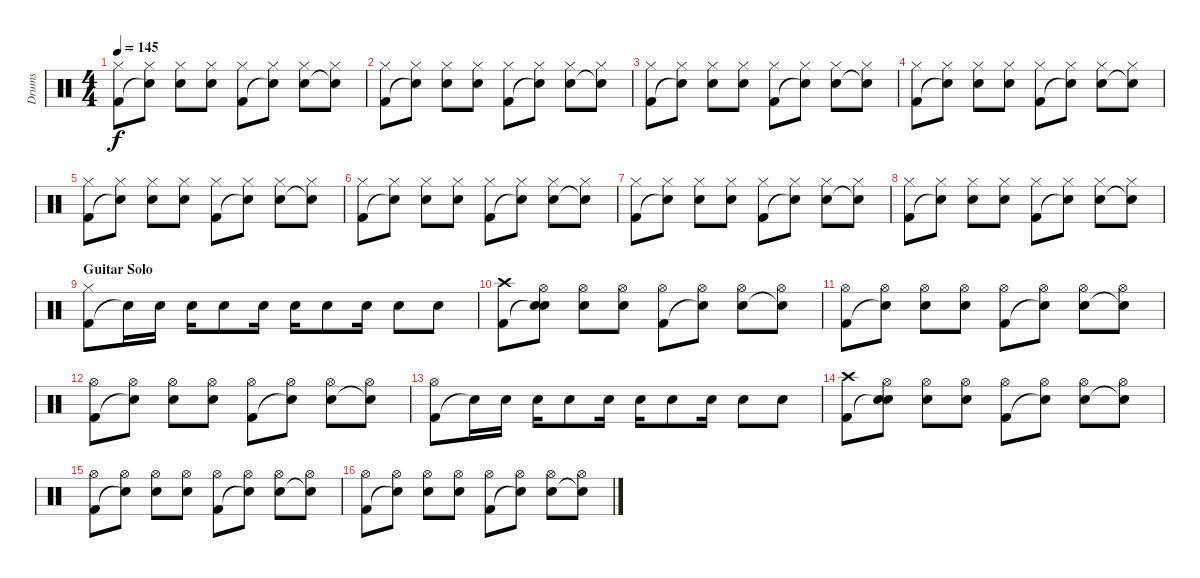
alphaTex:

\track ("Drums" "Drums") {instrument percussion}
\staff {score}
\articulation defaults
\ts (4 4)
\tempo 145
\clef neutral
\ks c
("Kick (hit) 2" "Hi-Hat (closed)").8{dy f} ("Snare (hit)"{t} "Hi-Hat (closed)").8 ("Snare (hit) 2" "Hi-Hat (closed)").8 ("Snare (hit) 2" "Hi-Hat (closed)").8 ("Kick (hit) 2" "Hi-Hat (closed)").8 ("Snare (hit)"{t} "Hi-Hat (closed)").8 ("Snare (hit) 2" "Hi-Hat (closed)").8 ("Snare (hit)"{t} "Hi-Hat (closed)").8 |
("Kick (hit) 2" "Hi-Hat (closed)").8 ("Snare (hit)"{t} "Hi-Hat (closed)").8 ("Snare (hit) 2" "Hi-Hat (closed)").8 ("Snare (hit) 2" "Hi-Hat (closed)").8 ("Kick (hit) 2" "Hi-Hat (closed)").8 ("Snare (hit)"{t} "Hi-Hat (closed)").8 ("Snare (hit) 2" "Hi-Hat (closed)").8 ("Snare (hit)"{t} "Hi-Hat (closed)").8 |
("Kick (hit) 2" "Hi-Hat (closed)").8 ("Snare (hit)"{t} "Hi-Hat (closed)").8 ("Snare (hit) 2" "Hi-Hat (closed)").8 ("Snare (hit) 2" "Hi-Hat (closed)").8 ("Kick (hit) 2" "Hi-Hat (closed)").8 ("Snare (hit)"{t} "Hi-Hat (closed)").8 ("Snare (hit) 2" "Hi-Hat (closed)").8 ("Snare (hit)"{t} "Hi-Hat (closed)").8 |
("Kick (hit) 2" "Hi-Hat (closed)").8 ("Snare (hit)"{t} "Hi-Hat (closed)").8 ("Snare (hit) 2" "Hi-Hat (closed)").8 ("Snare (hit) 2" "Hi-Hat (closed)").8 ("Kick (hit) 2" "Hi-Hat (closed)").8 ("Snare (hit)"{t} "Hi-Hat (closed)").8 ("Snare (hit) 2" "Hi-Hat (closed)").8 ("Snare (hit)"{t} "Hi-Hat (closed)").8 |
("Kick (hit) 2" "Hi-Hat (closed)").8 ("Snare (hit)"{t} "Hi-Hat (closed)").8 ("Snare (hit) 2" "Hi-Hat (closed)").8 ("Snare (hit) 2" "Hi-Hat (closed)").8 ("Kick (hit) 2" "Hi-Hat (closed)").8 ("Snare (hit)"{t} "Hi-Hat (closed)").8 ("Snare (hit) 2" "Hi-Hat (closed)").8 ("Snare (hit)"{t} "Hi-Hat (closed)").8 |
("Kick (hit) 2" "Hi-Hat (closed)").8 ("Snare (hit)"{t} "Hi-Hat (closed)").8 ("Snare (hit) 2" "Hi-Hat (closed)").8 ("Snare (hit) 2" "Hi-Hat (closed)").8 ("Kick (hit) 2" "Hi-Hat (closed)").8 ("Snare (hit)"{t} "Hi-Hat (closed)").8 ("Snare (hit) 2" "Hi-Hat (closed)").8 ("Snare (hit)"{t} "Hi-Hat (closed)").8 |
("Kick (hit) 2" "Hi-Hat (closed)").8 ("Snare (hit)"{t} "Hi-Hat (closed)").8 ("Snare (hit) 2" "Hi-Hat (closed)").8 ("Snare (hit) 2" "Hi-Hat (closed)").8 ("Kick (hit) 2" "Hi-Hat (closed)").8 ("Snare (hit)"{t} "Hi-Hat (closed)").8 ("Snare (hit) 2" "Hi-Hat (closed)").8 ("Snare (hit)"{t} "Hi-Hat (closed)").8 |
("Kick (hit) 2" "Hi-Hat (closed)").8 ("Snare (hit)"{t} "Hi-Hat (closed)").8 ("Snare (hit) 2" "Hi-Hat (closed)").8 ("Snare (hit) 2" "Hi-Hat (closed)").8 ("Kick (hit) 2" "Hi-Hat (closed)").8 ("Snare (hit)"{t} "Hi-Hat (closed)").8 ("Snare (hit) 2" "Hi-Hat (closed)").8 ("Snare (hit)"{t} "Hi-Hat (closed)").8 |
\section ("" "Guitar Solo")
("Kick (hit) 2" "Hi-Hat (closed)").8 "Snare (hit)"{t}.16 "Snare (hit) 2".16 "Snare (hit) 2".16 "Snare (hit) 2".8 "Snare (hit) 2".16 "Snare (hit) 2".16 "Snare (hit) 2".8 "Snare (hit) 2".16 "Snare (hit) 2".8 "Snare (hit) 2".8 |
("Kick (hit) 2" "Crash high (hit)").8 ("Snare (hit)"{t} "Hi-Hat (open)" "Snare (hit)").8 ("Snare (hit) 2" "Hi-Hat (open)").8 ("Snare (hit) 2" "Hi-Hat (open)").8 ("Kick (hit) 2" "Hi-Hat (open)").8 ("Snare (hit)"{t} "Hi-Hat (open)").8 ("Snare (hit) 2" "Hi-Hat (open)").8 ("Snare (hit)"{t} "Hi-Hat (open)").8 |
("Kick (hit) 2" "Hi-Hat (open)").8 ("Snare (hit)"{t} "Hi-Hat (open)").8 ("Snare (hit) 2" "Hi-Hat (open)").8 ("Snare (hit) 2" "Hi-Hat (open)").8 ("Kick (hit) 2" "Hi-Hat (open)").8 ("Snare (hit)"{t} "Hi-Hat (open)").8 ("Snare (hit) 2" "Hi-Hat (open)").8 ("Snare (hit)"{t} "Hi-Hat (open)").8 |
("Kick (hit) 2" "Hi-Hat (open)").8 ("Snare (hit)"{t} "Hi-Hat (open)").8 ("Snare (hit) 2" "Hi-Hat (open)").8 ("Snare (hit) 2" "Hi-Hat (open)").8 ("Kick (hit) 2" "Hi-Hat (open)").8 ("Snare (hit)"{t} "Hi-Hat (open)").8 ("Snare (hit) 2" "Hi-Hat (open)").8 ("Snare (hit)"{t} "Hi-Hat (open)").8 |
("Kick (hit) 2" "Hi-Hat (open)").8 "Snare (hit)"{t}.16 "Snare (hit) 2".16 "Snare (hit) 2".16 "Snare (hit) 2".8 "Snare (hit) 2".16 "Snare (hit) 2".16 "Snare (hit) 2".8 "Snare (hit) 2".16 "Snare (hit) 2".8 "Snare (hit) 2".8 |
("Kick (hit) 2" "Crash high (hit)").8 ("Snare (hit)"{t} "Hi-Hat (open)" "Snare (hit)").8 ("Snare (hit) 2" "Hi-Hat (open)").8 ("Snare (hit) 2" "Hi-Hat (open)").8 ("Kick (hit) 2" "Hi-Hat (open)").8 ("Snare (hit)"{t} "Hi-Hat (open)").8 ("Snare (hit) 2" "Hi-Hat (open)").8 ("Snare (hit)"{t} "Hi-Hat (open)").8 |
("Kick (hit) 2" "Hi-Hat (open)").8 ("Snare (hit)"{t} "Hi-Hat (open)").8 ("Snare (hit) 2" "Hi-Hat (open)").8 ("Snare (hit) 2" "Hi-Hat (open)").8 ("Kick (hit) 2" "Hi-Hat (open)").8 ("Snare (hit)"{t} "Hi-Hat (open)").8 ("Snare (hit) 2" "Hi-Hat (open)").8 ("Snare (hit)"{t} "Hi-Hat (open)").8 |
("Kick (hit) 2" "Hi-Hat (open)").8 ("Snare (hit)"{t} "Hi-Hat (open)").8 ("Snare (hit) 2" "Hi-Hat (open)").8 ("Snare (hit) 2" "Hi-Hat (open)").8 ("Kick (hit) 2" "Hi-Hat (open)").8 ("Snare (hit)"{t} "Hi-Hat (open)").8 ("Snare (hit) 2" "Hi-Hat (open)").8 ("Snare (hit)"{t} "Hi-Hat (open)").8
